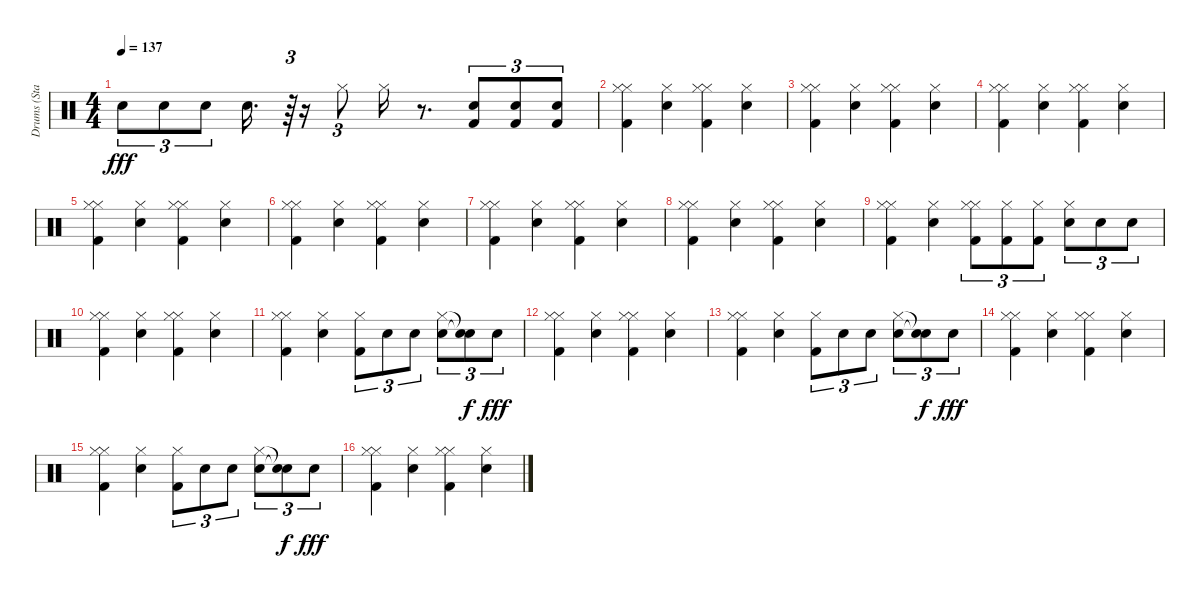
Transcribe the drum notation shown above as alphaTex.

\track ("Drums (Standard Set)" "Drums (Sta") {instrument percussion}
\staff {score}
\articulation defaults
\ts (4 4)
\tempo 137
\clef neutral
\ks c "Snare (hit) 2".8{tu (3 2) dy fff} "Snare (hit) 2".8{tu (3 2)} "Snare (hit) 2".8{tu (3 2)} "Snare (hit) 2".16{d}
r.64{tu (3 2)} r.16 "Hi-Hat (closed)".8{tu (3 2)} "Hi-Hat (closed)".16 r.8{d} ("Snare (hit) 2" "Kick (hit) 2").8{tu (3 2)} ("Snare (hit) 2" "Kick (hit) 2").8{tu (3 2)} ("Snare (hit) 2" "Kick (hit) 2").8{tu (3 2)} |
("Hi-Hat (closed)" "Kick (hit) 2" "Hi-Hat (closed)").4 ("Snare (hit) 2" "Hi-Hat (closed)").4 ("Hi-Hat (closed)" "Kick (hit) 2" "Hi-Hat (closed)").4 ("Snare (hit) 2" "Hi-Hat (closed)").4 |
("Hi-Hat (closed)" "Kick (hit) 2" "Hi-Hat (closed)").4 ("Snare (hit) 2" "Hi-Hat (closed)").4 ("Hi-Hat (closed)" "Kick (hit) 2" "Hi-Hat (closed)").4 ("Snare (hit) 2" "Hi-Hat (closed)").4 |
("Hi-Hat (closed)" "Kick (hit) 2" "Hi-Hat (closed)").4 ("Snare (hit) 2" "Hi-Hat (closed)").4 ("Hi-Hat (closed)" "Kick (hit) 2" "Hi-Hat (closed)").4 ("Snare (hit) 2" "Hi-Hat (closed)").4 |
("Hi-Hat (closed)" "Kick (hit) 2" "Hi-Hat (closed)").4 ("Snare (hit) 2" "Hi-Hat (closed)").4 ("Hi-Hat (closed)" "Kick (hit) 2" "Hi-Hat (closed)").4 ("Snare (hit) 2" "Hi-Hat (closed)").4 |
("Hi-Hat (closed)" "Kick (hit) 2" "Hi-Hat (closed)").4 ("Snare (hit) 2" "Hi-Hat (closed)").4 ("Hi-Hat (closed)" "Kick (hit) 2" "Hi-Hat (closed)").4 ("Snare (hit) 2" "Hi-Hat (closed)").4 |
("Hi-Hat (closed)" "Kick (hit) 2" "Hi-Hat (closed)").4 ("Snare (hit) 2" "Hi-Hat (closed)").4 ("Hi-Hat (closed)" "Kick (hit) 2" "Hi-Hat (closed)").4 ("Snare (hit) 2" "Hi-Hat (closed)").4 |
("Hi-Hat (closed)" "Kick (hit) 2" "Hi-Hat (closed)").4 ("Snare (hit) 2" "Hi-Hat (closed)").4 ("Hi-Hat (closed)" "Kick (hit) 2" "Hi-Hat (closed)").4 ("Snare (hit) 2" "Hi-Hat (closed)").4 |
("Kick (hit) 2" "Hi-Hat (closed)" "Hi-Hat (closed)").4 ("Snare (hit) 2" "Hi-Hat (closed)").4 ("Hi-Hat (closed)" "Kick (hit) 2" "Hi-Hat (closed)").8{tu (3 2)} ("Hi-Hat (closed)" "Kick (hit) 2").8{tu (3 2)} ("Hi-Hat (closed)" "Kick (hit) 2").8{tu (3 2)} ("Snare (hit) 2" "Hi-Hat (closed)").8{tu (3 2)} "Snare (hit) 2".8{tu (3 2)} "Snare (hit) 2".8{tu (3 2)} |
("Hi-Hat (closed)" "Kick (hit) 2" "Hi-Hat (closed)").4 ("Snare (hit) 2" "Hi-Hat (closed)").4 ("Hi-Hat (closed)" "Kick (hit) 2" "Hi-Hat (closed)").4 ("Snare (hit) 2" "Hi-Hat (closed)").4 |
("Hi-Hat (closed)" "Kick (hit) 2" "Hi-Hat (closed)").4 ("Snare (hit) 2" "Hi-Hat (closed)").4 ("Kick (hit) 2" "Hi-Hat (closed)").8{tu (3 2)} "Snare (hit) 2".8{tu (3 2)} "Snare (hit) 2".8{tu (3 2)} ("Snare (hit) 2" "Hi-Hat (closed)").8{tu (3 2)} ("Snare (hit)"{t} "Snare (hit)"{t}).8{tu (3 2) dy f} "Snare (hit) 2".8{tu (3 2) dy fff} |
("Hi-Hat (closed)" "Kick (hit) 2" "Hi-Hat (closed)").4 ("Snare (hit) 2" "Hi-Hat (closed)").4 ("Hi-Hat (closed)" "Kick (hit) 2" "Hi-Hat (closed)").4 ("Snare (hit) 2" "Hi-Hat (closed)").4 |
("Hi-Hat (closed)" "Kick (hit) 2" "Hi-Hat (closed)").4 ("Snare (hit) 2" "Hi-Hat (closed)").4 ("Kick (hit) 2" "Hi-Hat (closed)").8{tu (3 2)} "Snare (hit) 2".8{tu (3 2)} "Snare (hit) 2".8{tu (3 2)} ("Snare (hit) 2" "Hi-Hat (closed)").8{tu (3 2)} ("Snare (hit)"{t} "Snare (hit)"{t}).8{tu (3 2) dy f} "Snare (hit) 2".8{tu (3 2) dy fff} |
("Hi-Hat (closed)" "Kick (hit) 2" "Hi-Hat (closed)").4 ("Snare (hit) 2" "Hi-Hat (closed)").4 ("Hi-Hat (closed)" "Kick (hit) 2" "Hi-Hat (closed)").4 ("Snare (hit) 2" "Hi-Hat (closed)").4 |
("Hi-Hat (closed)" "Kick (hit) 2" "Hi-Hat (closed)").4 ("Snare (hit) 2" "Hi-Hat (closed)").4 ("Kick (hit) 2" "Hi-Hat (closed)").8{tu (3 2)} "Snare (hit) 2".8{tu (3 2)} "Snare (hit) 2".8{tu (3 2)} ("Snare (hit) 2" "Hi-Hat (closed)").8{tu (3 2)} ("Snare (hit)"{t} "Snare (hit)"{t}).8{tu (3 2) dy f} "Snare (hit) 2".8{tu (3 2) dy fff} |
("Hi-Hat (closed)" "Kick (hit) 2" "Hi-Hat (closed)").4 ("Snare (hit) 2" "Hi-Hat (closed)").4 ("Hi-Hat (closed)" "Kick (hit) 2" "Hi-Hat (closed)").4 ("Snare (hit) 2" "Hi-Hat (closed)").4
